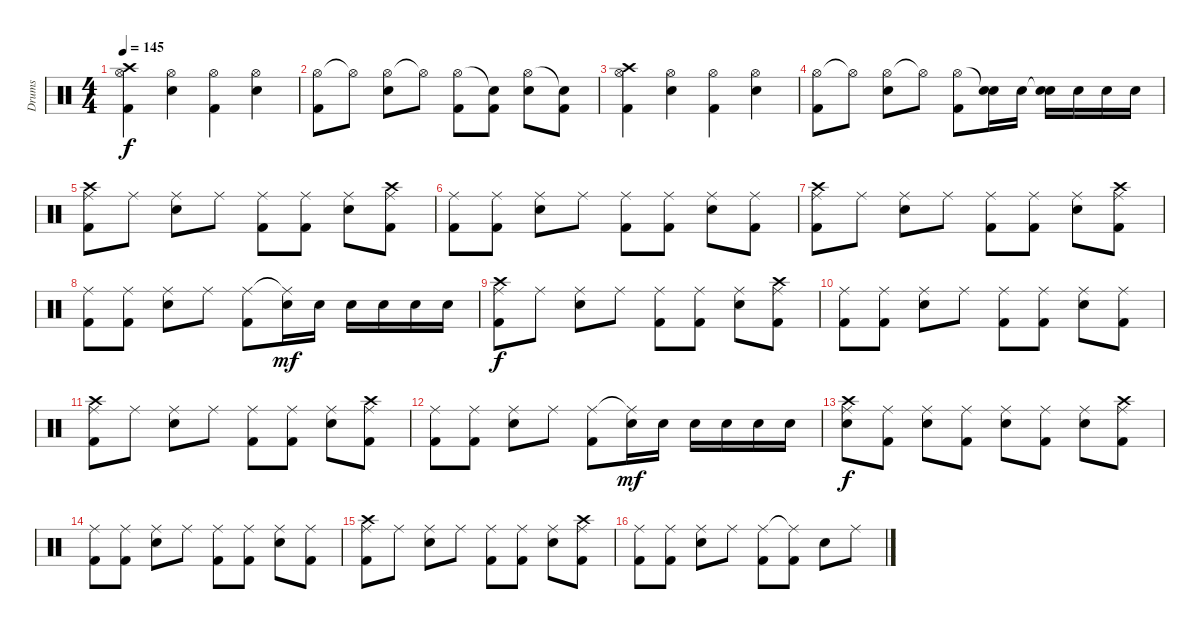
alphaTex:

\track ("Drums" "Drums") {instrument percussion}
\staff {score}
\articulation defaults
\ts (4 4)
\tempo 145
\clef neutral
\ks c
("Hi-Hat (open)" "Kick (hit) 2" "Crash high (hit)").4{dy f} ("Hi-Hat (open)" "Electric Snare (hit)").4 ("Hi-Hat (open)" "Kick (hit) 2").4 ("Hi-Hat (open)" "Electric Snare (hit)").4 |
("Hi-Hat (open)" "Kick (hit) 2").8 "Hi-Hat (open)"{t}.8 ("Hi-Hat (open)" "Electric Snare (hit)").8 "Hi-Hat (open)"{t}.8 ("Hi-Hat (open)" "Kick (hit) 2").8 ("Snare (hit)"{t} "Kick (hit) 2").8 ("Hi-Hat (open)" "Electric Snare (hit)").8 ("Snare (hit)"{t} "Kick (hit) 2").8 |
("Hi-Hat (open)" "Kick (hit) 2" "Crash high (hit)").4 ("Hi-Hat (open)" "Electric Snare (hit)").4 ("Hi-Hat (open)" "Kick (hit) 2").4 ("Hi-Hat (open)" "Electric Snare (hit)").4 |
("Hi-Hat (open)" "Kick (hit) 2").8 "Hi-Hat (open)"{t}.8 ("Hi-Hat (open)" "Electric Snare (hit)").8 "Hi-Hat (open)"{t}.8 ("Hi-Hat (open)" "Kick (hit) 2").8 ("Snare (hit)"{t} "Electric Snare (hit)").16 "Electric Snare (hit)".16 ("Snare (hit)"{t} "Electric Snare (hit)").16 "Electric Snare (hit)".16 "Electric Snare (hit)".16 "Electric Snare (hit)".16 |
("Ride (middle)" "Kick (hit) 2" "Crash high (hit)").8 "Ride (middle)".8 ("Ride (middle)" "Electric Snare (hit)").8 "Ride (middle)".8 ("Ride (middle)" "Kick (hit) 2").8 ("Ride (middle)" "Kick (hit) 2").8 ("Ride (middle)" "Electric Snare (hit)").8 ("Ride (middle)" "Kick (hit) 2" "Crash high (hit)").8 |
("Ride (middle)" "Kick (hit) 2").8 ("Ride (middle)" "Kick (hit) 2").8 ("Ride (middle)" "Electric Snare (hit)").8 "Ride (middle)".8 ("Ride (middle)" "Kick (hit) 2").8 ("Ride (middle)" "Kick (hit) 2").8 ("Ride (middle)" "Electric Snare (hit)").8 ("Ride (middle)" "Kick (hit) 2").8 |
("Ride (middle)" "Kick (hit) 2" "Crash high (hit)").8 "Ride (middle)".8 ("Ride (middle)" "Electric Snare (hit)").8 "Ride (middle)".8 ("Ride (middle)" "Kick (hit) 2").8 ("Ride (middle)" "Kick (hit) 2").8 ("Ride (middle)" "Electric Snare (hit)").8 ("Ride (middle)" "Kick (hit) 2" "Crash high (hit)").8 |
("Ride (middle)" "Kick (hit) 2").8 ("Ride (middle)" "Kick (hit) 2").8 ("Ride (middle)" "Electric Snare (hit)").8 "Ride (middle)".8 ("Ride (middle)" "Kick (hit) 2").8 ("Ride (middle)"{t} "Electric Snare (hit)").16{dy mf} "Electric Snare (hit)".16 "Electric Snare (hit)".16 "Electric Snare (hit)".16 "Electric Snare (hit)".16 "Electric Snare (hit)".16 |
("Ride (middle)" "Kick (hit) 2" "Crash high (hit)").8{dy f} "Ride (middle)".8 ("Ride (middle)" "Electric Snare (hit)").8 "Ride (middle)".8 ("Ride (middle)" "Kick (hit) 2").8 ("Ride (middle)" "Kick (hit) 2").8 ("Ride (middle)" "Electric Snare (hit)").8 ("Ride (middle)" "Kick (hit) 2" "Crash high (hit)").8 |
("Ride (middle)" "Kick (hit) 2").8 ("Ride (middle)" "Kick (hit) 2").8 ("Ride (middle)" "Electric Snare (hit)").8 "Ride (middle)".8 ("Ride (middle)" "Kick (hit) 2").8 ("Ride (middle)" "Kick (hit) 2").8 ("Ride (middle)" "Electric Snare (hit)").8 ("Ride (middle)" "Kick (hit) 2").8 |
("Ride (middle)" "Kick (hit) 2" "Crash high (hit)").8 "Ride (middle)".8 ("Ride (middle)" "Electric Snare (hit)").8 "Ride (middle)".8 ("Ride (middle)" "Kick (hit) 2").8 ("Ride (middle)" "Kick (hit) 2").8 ("Ride (middle)" "Electric Snare (hit)").8 ("Ride (middle)" "Kick (hit) 2" "Crash high (hit)").8 |
("Ride (middle)" "Kick (hit) 2").8 ("Ride (middle)" "Kick (hit) 2").8 ("Ride (middle)" "Electric Snare (hit)").8 "Ride (middle)".8 ("Ride (middle)" "Kick (hit) 2").8 ("Ride (middle)"{t} "Electric Snare (hit)").16{dy mf} "Electric Snare (hit)".16 "Electric Snare (hit)".16 "Electric Snare (hit)".16 "Electric Snare (hit)".16 "Electric Snare (hit)".16 |
("Ride (middle)" "Electric Snare (hit)" "Crash high (hit)").8{dy f} ("Ride (middle)" "Kick (hit) 2").8 ("Ride (middle)" "Electric Snare (hit)").8 ("Ride (middle)" "Kick (hit) 2").8 ("Ride (middle)" "Electric Snare (hit)").8 ("Ride (middle)" "Kick (hit) 2").8 ("Ride (middle)" "Electric Snare (hit)").8 ("Ride (middle)" "Kick (hit) 2" "Crash high (hit)").8 |
("Ride (middle)" "Kick (hit) 2").8 ("Ride (middle)" "Kick (hit) 2").8 ("Ride (middle)" "Electric Snare (hit)").8 "Ride (middle)".8 ("Ride (middle)" "Kick (hit) 2").8 ("Ride (middle)" "Kick (hit) 2").8 ("Ride (middle)" "Electric Snare (hit)").8 ("Ride (middle)" "Kick (hit) 2").8 |
("Ride (middle)" "Kick (hit) 2" "Crash high (hit)").8 "Ride (middle)".8 ("Ride (middle)" "Electric Snare (hit)").8 "Ride (middle)".8 ("Ride (middle)" "Kick (hit) 2").8 ("Ride (middle)" "Kick (hit) 2").8 ("Ride (middle)" "Electric Snare (hit)").8 ("Ride (middle)" "Kick (hit) 2" "Crash high (hit)").8 |
("Ride (middle)" "Kick (hit) 2").8 ("Ride (middle)" "Kick (hit) 2").8 ("Ride (middle)" "Electric Snare (hit)").8 "Ride (middle)".8 ("Ride (middle)" "Kick (hit) 2").8 ("Ride (middle)"{t} "Kick (hit) 2").8 "Electric Snare (hit)".8 "Ride (middle)".8
